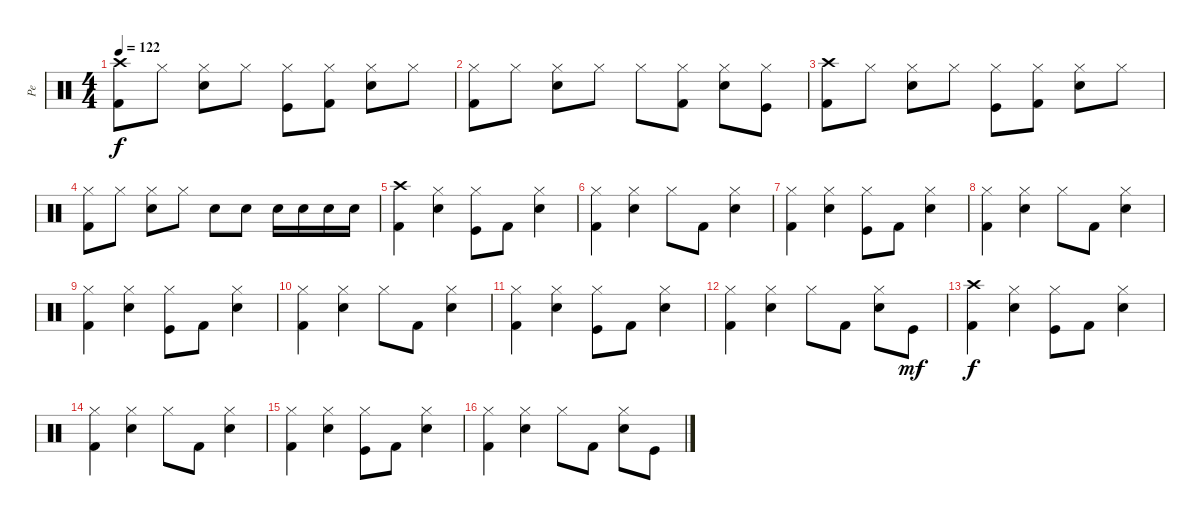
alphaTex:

\track ("Pe" "Pe") {instrument percussion}
\staff {score}
\articulation defaults
\ts (4 4)
\tempo 122
\clef neutral
\ks c
("Kick (hit) 2" "Crash high (hit)").8{dy f} "Hi-Hat (closed)".8 ("Electric Snare (hit)" "Hi-Hat (closed)").8 "Hi-Hat (closed)".8 ("Kick (hit)" "Hi-Hat (closed)").8 ("Kick (hit) 2" "Hi-Hat (closed)").8 ("Electric Snare (hit)" "Hi-Hat (closed)").8 "Hi-Hat (closed)".8 |
("Kick (hit) 2" "Hi-Hat (closed)").8 "Hi-Hat (closed)".8 ("Electric Snare (hit)" "Hi-Hat (closed)").8 "Hi-Hat (closed)".8 "Hi-Hat (closed)".8 ("Kick (hit) 2" "Hi-Hat (closed)").8 ("Electric Snare (hit)" "Hi-Hat (closed)").8 ("Kick (hit)" "Hi-Hat (closed)").8 |
("Kick (hit) 2" "Crash high (hit)").8 "Hi-Hat (closed)".8 ("Electric Snare (hit)" "Hi-Hat (closed)").8 "Hi-Hat (closed)".8 ("Kick (hit)" "Hi-Hat (closed)").8 ("Kick (hit) 2" "Hi-Hat (closed)").8 ("Electric Snare (hit)" "Hi-Hat (closed)").8 "Hi-Hat (closed)".8 |
("Kick (hit) 2" "Hi-Hat (closed)").8 "Hi-Hat (closed)".8 ("Electric Snare (hit)" "Hi-Hat (closed)").8 "Hi-Hat (closed)".8 "Electric Snare (hit)".8 "Electric Snare (hit)".8 "Electric Snare (hit)".16 "Electric Snare (hit)".16 "Electric Snare (hit)".16 "Electric Snare (hit)".16 |
("Kick (hit) 2" "Crash high (hit)").4 ("Electric Snare (hit)" "Hi-Hat (closed)").4 ("Kick (hit)" "Hi-Hat (closed)").8 "Kick (hit) 2".8 ("Electric Snare (hit)" "Hi-Hat (closed)").4 |
("Kick (hit) 2" "Hi-Hat (closed)").4 ("Electric Snare (hit)" "Hi-Hat (closed)").4 "Hi-Hat (closed)".8 "Kick (hit) 2".8 ("Electric Snare (hit)" "Hi-Hat (closed)").4 |
("Kick (hit) 2" "Hi-Hat (closed)").4 ("Electric Snare (hit)" "Hi-Hat (closed)").4 ("Kick (hit)" "Hi-Hat (closed)").8 "Kick (hit) 2".8 ("Electric Snare (hit)" "Hi-Hat (closed)").4 |
("Kick (hit) 2" "Hi-Hat (closed)").4 ("Electric Snare (hit)" "Hi-Hat (closed)").4 "Hi-Hat (closed)".8 "Kick (hit) 2".8 ("Electric Snare (hit)" "Hi-Hat (closed)").4 |
("Kick (hit) 2" "Hi-Hat (closed)").4 ("Electric Snare (hit)" "Hi-Hat (closed)").4 ("Kick (hit)" "Hi-Hat (closed)").8 "Kick (hit) 2".8 ("Electric Snare (hit)" "Hi-Hat (closed)").4 |
("Kick (hit) 2" "Hi-Hat (closed)").4 ("Electric Snare (hit)" "Hi-Hat (closed)").4 "Hi-Hat (closed)".8 "Kick (hit) 2".8 ("Electric Snare (hit)" "Hi-Hat (closed)").4 |
("Kick (hit) 2" "Hi-Hat (closed)").4 ("Electric Snare (hit)" "Hi-Hat (closed)").4 ("Kick (hit)" "Hi-Hat (closed)").8 "Kick (hit) 2".8 ("Electric Snare (hit)" "Hi-Hat (closed)").4 |
("Kick (hit) 2" "Hi-Hat (closed)").4 ("Electric Snare (hit)" "Hi-Hat (closed)").4 "Hi-Hat (closed)".8 "Kick (hit) 2".8 ("Electric Snare (hit)" "Hi-Hat (closed)").8 "Kick (hit)".8{dy mf} |
("Kick (hit) 2" "Crash high (hit)").4{dy f} ("Electric Snare (hit)" "Hi-Hat (closed)").4 ("Kick (hit)" "Hi-Hat (closed)").8 "Kick (hit) 2".8 ("Electric Snare (hit)" "Hi-Hat (closed)").4 |
("Kick (hit) 2" "Hi-Hat (closed)").4 ("Electric Snare (hit)" "Hi-Hat (closed)").4 "Hi-Hat (closed)".8 "Kick (hit) 2".8 ("Electric Snare (hit)" "Hi-Hat (closed)").4 |
("Kick (hit) 2" "Hi-Hat (closed)").4 ("Electric Snare (hit)" "Hi-Hat (closed)").4 ("Kick (hit)" "Hi-Hat (closed)").8 "Kick (hit) 2".8 ("Electric Snare (hit)" "Hi-Hat (closed)").4 |
("Kick (hit) 2" "Hi-Hat (closed)").4 ("Electric Snare (hit)" "Hi-Hat (closed)").4 "Hi-Hat (closed)".8 "Kick (hit) 2".8 ("Electric Snare (hit)" "Hi-Hat (closed)").8 "Kick (hit)".8
